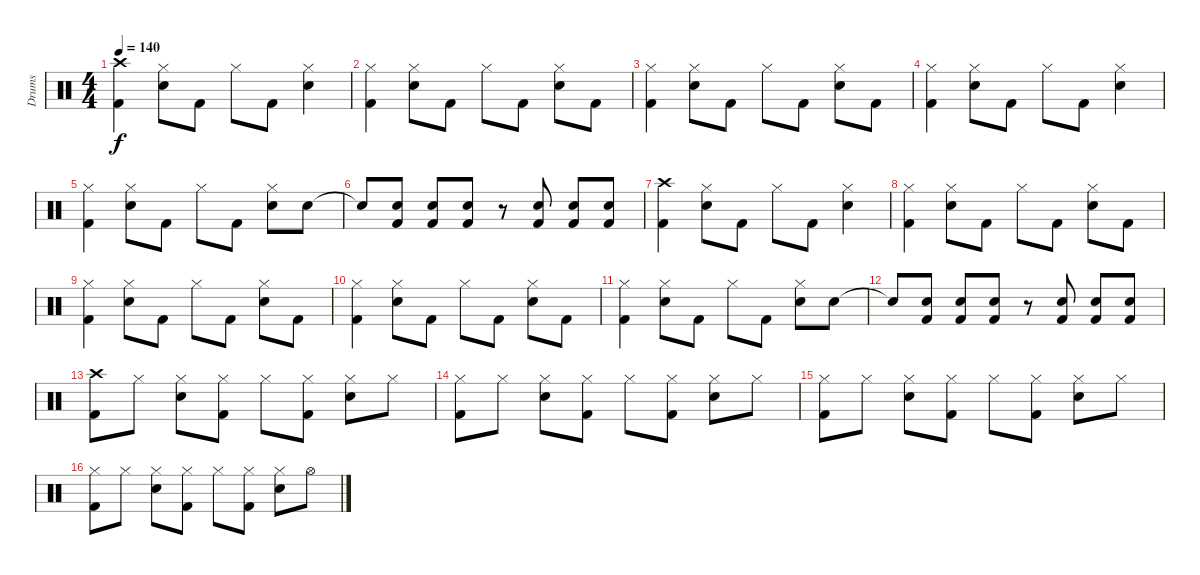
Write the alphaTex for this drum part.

\track ("Drums" "Drums") {instrument percussion}
\staff {score}
\articulation defaults
\ts (4 4)
\tempo 140
\clef neutral
\ks c
("Crash high (hit)" "Kick (hit) 2").4{dy f} ("Hi-Hat (closed)" "Snare (hit) 2").8 "Kick (hit) 2".8 "Hi-Hat (closed)".8 "Kick (hit) 2".8 ("Hi-Hat (closed)" "Snare (hit) 2").4 |
("Hi-Hat (closed)" "Kick (hit) 2").4 ("Hi-Hat (closed)" "Snare (hit) 2").8 "Kick (hit) 2".8 "Hi-Hat (closed)".8 "Kick (hit) 2".8 ("Hi-Hat (closed)" "Snare (hit) 2").8 "Kick (hit) 2".8 |
("Hi-Hat (closed)" "Kick (hit) 2").4 ("Hi-Hat (closed)" "Snare (hit) 2").8 "Kick (hit) 2".8 "Hi-Hat (closed)".8 "Kick (hit) 2".8 ("Hi-Hat (closed)" "Snare (hit) 2").8 "Kick (hit) 2".8 |
("Hi-Hat (closed)" "Kick (hit) 2").4 ("Hi-Hat (closed)" "Snare (hit) 2").8 "Kick (hit) 2".8 "Hi-Hat (closed)".8 "Kick (hit) 2".8 ("Hi-Hat (closed)" "Snare (hit) 2").4 |
("Hi-Hat (closed)" "Kick (hit) 2").4 ("Hi-Hat (closed)" "Snare (hit) 2").8 "Kick (hit) 2".8 "Hi-Hat (closed)".8 "Kick (hit) 2".8 ("Hi-Hat (closed)" "Snare (hit) 2").8 "Snare (hit) 2".8 |
"Snare (hit) 2"{t}.8 ("Snare (hit) 2" "Kick (hit) 2").8 ("Snare (hit) 2" "Kick (hit) 2").8 ("Snare (hit) 2" "Kick (hit) 2").8 r.8 ("Snare (hit) 2" "Kick (hit) 2").8 ("Snare (hit) 2" "Kick (hit) 2").8 ("Snare (hit) 2" "Kick (hit) 2").8 |
("Crash high (hit)" "Kick (hit) 2").4 ("Hi-Hat (closed)" "Snare (hit) 2").8 "Kick (hit) 2".8 "Hi-Hat (closed)".8 "Kick (hit) 2".8 ("Hi-Hat (closed)" "Snare (hit) 2").4 |
("Hi-Hat (closed)" "Kick (hit) 2").4 ("Hi-Hat (closed)" "Snare (hit) 2").8 "Kick (hit) 2".8 "Hi-Hat (closed)".8 "Kick (hit) 2".8 ("Hi-Hat (closed)" "Snare (hit) 2").8 "Kick (hit) 2".8 |
("Hi-Hat (closed)" "Kick (hit) 2").4 ("Hi-Hat (closed)" "Snare (hit) 2").8 "Kick (hit) 2".8 "Hi-Hat (closed)".8 "Kick (hit) 2".8 ("Hi-Hat (closed)" "Snare (hit) 2").8 "Kick (hit) 2".8 |
("Hi-Hat (closed)" "Kick (hit) 2").4 ("Hi-Hat (closed)" "Snare (hit) 2").8 "Kick (hit) 2".8 "Hi-Hat (closed)".8 "Kick (hit) 2".8 ("Hi-Hat (closed)" "Snare (hit) 2").8 "Kick (hit) 2".8 |
("Hi-Hat (closed)" "Kick (hit) 2").4 ("Hi-Hat (closed)" "Snare (hit) 2").8 "Kick (hit) 2".8 "Hi-Hat (closed)".8 "Kick (hit) 2".8 ("Hi-Hat (closed)" "Snare (hit) 2").8 "Snare (hit) 2".8 |
"Snare (hit) 2"{t}.8 ("Snare (hit) 2" "Kick (hit) 2").8 ("Snare (hit) 2" "Kick (hit) 2").8 ("Snare (hit) 2" "Kick (hit) 2").8 r.8 ("Snare (hit) 2" "Kick (hit) 2").8 ("Snare (hit) 2" "Kick (hit) 2").8 ("Snare (hit) 2" "Kick (hit) 2").8 |
("Crash high (hit)" "Kick (hit) 2").8 "Hi-Hat (closed)".8 ("Hi-Hat (closed)" "Snare (hit) 2").8 ("Hi-Hat (closed)" "Kick (hit) 2").8 "Hi-Hat (closed)".8 ("Hi-Hat (closed)" "Kick (hit) 2").8 ("Hi-Hat (closed)" "Snare (hit) 2").8 "Hi-Hat (closed)".8 |
("Hi-Hat (closed)" "Kick (hit) 2").8 "Hi-Hat (closed)".8 ("Hi-Hat (closed)" "Snare (hit) 2").8 ("Hi-Hat (closed)" "Kick (hit) 2").8 "Hi-Hat (closed)".8 ("Hi-Hat (closed)" "Kick (hit) 2").8 ("Hi-Hat (closed)" "Snare (hit) 2").8 "Hi-Hat (closed)".8 |
("Hi-Hat (closed)" "Kick (hit) 2").8 "Hi-Hat (closed)".8 ("Hi-Hat (closed)" "Snare (hit) 2").8 ("Hi-Hat (closed)" "Kick (hit) 2").8 "Hi-Hat (closed)".8 ("Hi-Hat (closed)" "Kick (hit) 2").8 ("Hi-Hat (closed)" "Snare (hit) 2").8 "Hi-Hat (closed)".8 |
("Hi-Hat (closed)" "Kick (hit) 2").8 "Hi-Hat (closed)".8 ("Hi-Hat (closed)" "Snare (hit) 2").8 ("Hi-Hat (closed)" "Kick (hit) 2").8 "Hi-Hat (closed)".8 ("Hi-Hat (closed)" "Kick (hit) 2").8 ("Hi-Hat (closed)" "Snare (hit) 2").8 "Hi-Hat (open)".8
